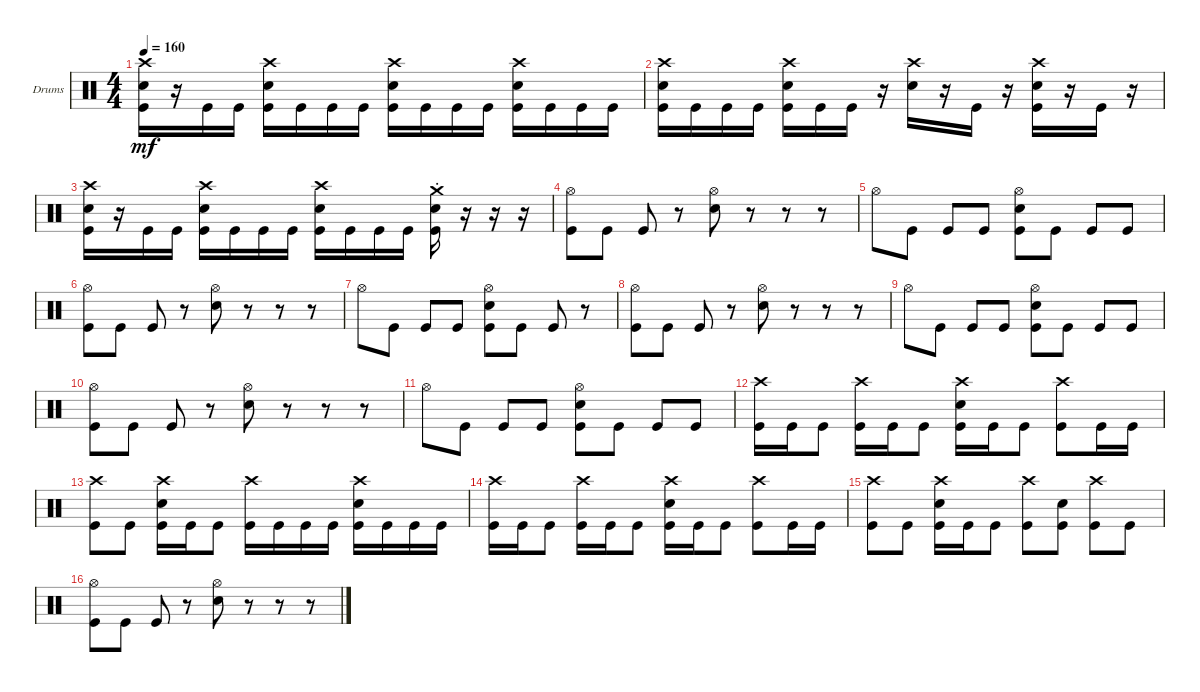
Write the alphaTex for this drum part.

\bracketExtendMode groupsimilarinstruments
\firstSystemTrackNameOrientation horizontal
\otherSystemsTrackNameOrientation horizontal
\track ("Drums" "Drums") {instrument percussion}
\staff {score}
\articulation defaults
\ts (4 4)
\tempo 160
\clef neutral
\scale
0.333333
\ks c
("Kick (hit)" "Snare (hit) 2" "Crash high (hit)").16{dy mf} r.16 "Kick (hit)".16 "Kick (hit)".16 ("Kick (hit)" "Snare (hit) 2" "Crash high (hit)").16 "Kick (hit)".16 "Kick (hit)".16 "Kick (hit)".16 ("Kick (hit)" "Snare (hit) 2" "Crash high (hit)").16 "Kick (hit)".16 "Kick (hit)".16 "Kick (hit)".16 ("Kick (hit)" "Snare (hit) 2" "Crash high (hit)").16 "Kick (hit)".16 "Kick (hit)".16 "Kick (hit)".16 |
\scale
0.333333 ("Kick (hit)" "Snare (hit) 2" "Crash high (hit)").16 "Kick (hit)".16 "Kick (hit)".16 "Kick (hit)".16 ("Kick (hit)" "Snare (hit) 2" "Crash high (hit)").16 "Kick (hit)".16 "Kick (hit)".16 r.16 ("Snare (hit) 2" "Crash high (hit)").16 r.16 "Kick (hit)".16 r.16 ("Kick (hit)" "Snare (hit) 2" "Crash high (hit)").16 r.16 "Kick (hit)".16 r.16 |
\scale
0.333333 ("Kick (hit)" "Snare (hit) 2" "Crash high (hit)").16 r.16 "Kick (hit)".16 "Kick (hit)".16 ("Kick (hit)" "Snare (hit) 2" "Crash high (hit)").16 "Kick (hit)".16 "Kick (hit)".16 "Kick (hit)".16 ("Kick (hit)" "Snare (hit) 2" "Crash high (hit)").16 "Kick (hit)".16 "Kick (hit)".16 "Kick (hit)".16 ("Kick (hit)" "Snare (hit) 2" "Crash medium (hit)"{st}).16 r.16 r.16 r.16 |
\scale
0.333333 ("Kick (hit)" "Hi-Hat (open)").8 "Kick (hit)".8 "Kick (hit)".8 r.8 ("Snare (hit) 2" "Hi-Hat (open)").8 r.8 r.8 r.8 |
\scale
0.333333 "Hi-Hat (open)".8 "Kick (hit)".8 "Kick (hit)".8 "Kick (hit)".8 ("Kick (hit)" "Snare (hit) 2" "Hi-Hat (open)").8 "Kick (hit)".8 "Kick (hit)".8 "Kick (hit)".8 |
\scale
0.333333 ("Kick (hit)" "Hi-Hat (open)").8 "Kick (hit)".8 "Kick (hit)".8 r.8 ("Hi-Hat (open)" "Snare (hit) 2").8 r.8 r.8 r.8 |
\scale
0.333333 "Hi-Hat (open)".8 "Kick (hit)".8 "Kick (hit)".8 "Kick (hit)".8 ("Kick (hit)" "Snare (hit) 2" "Hi-Hat (open)").8 "Kick (hit)".8 "Kick (hit)".8 r.8 |
\scale
0.333333 ("Kick (hit)" "Hi-Hat (open)").8 "Kick (hit)".8 "Kick (hit)".8 r.8 ("Snare (hit) 2" "Hi-Hat (open)").8 r.8 r.8 r.8 |
\scale
0.333333 "Hi-Hat (open)".8 "Kick (hit)".8 "Kick (hit)".8 "Kick (hit)".8 ("Kick (hit)" "Snare (hit) 2" "Hi-Hat (open)").8 "Kick (hit)".8 "Kick (hit)".8 "Kick (hit)".8 |
\scale
0.333333 ("Kick (hit)" "Hi-Hat (open)").8 "Kick (hit)".8 "Kick (hit)".8 r.8 ("Hi-Hat (open)" "Snare (hit) 2").8 r.8 r.8 r.8 |
\scale
0.333333 "Hi-Hat (open)".8 "Kick (hit)".8 "Kick (hit)".8 "Kick (hit)".8 ("Kick (hit)" "Snare (hit) 2" "Hi-Hat (open)").8 "Kick (hit)".8 "Kick (hit)".8 "Kick (hit)".8 |
\scale
0.333333 ("Kick (hit)" "Crash high (hit)").16 "Kick (hit)".16 "Kick (hit)".8 ("Kick (hit)" "Crash high (hit)").16 "Kick (hit)".16 "Kick (hit)".8 ("Kick (hit)" "Crash high (hit)" "Snare (hit) 2").16 "Kick (hit)".16 "Kick (hit)".8 ("Kick (hit)" "Crash high (hit)").8 "Kick (hit)".16 "Kick (hit)".16 |
\scale
0.333333 ("Kick (hit)" "Crash high (hit)").8 "Kick (hit)".8 ("Kick (hit)" "Crash high (hit)" "Snare (hit) 2").16 "Kick (hit)".16 "Kick (hit)".8 ("Kick (hit)" "Crash high (hit)").16 "Kick (hit)".16 "Kick (hit)".16 "Kick (hit)".16 ("Kick (hit)" "Crash high (hit)" "Snare (hit) 2").16 "Kick (hit)".16 "Kick (hit)".16 "Kick (hit)".16 |
\scale
0.333333 ("Kick (hit)" "Crash high (hit)").16 "Kick (hit)".16 "Kick (hit)".8 ("Kick (hit)" "Crash high (hit)").16 "Kick (hit)".16 "Kick (hit)".8 ("Kick (hit)" "Crash high (hit)" "Snare (hit) 2").16 "Kick (hit)".16 "Kick (hit)".8 ("Kick (hit)" "Crash high (hit)").8 "Kick (hit)".16 "Kick (hit)".16 |
\scale
0.333333 ("Kick (hit)" "Crash high (hit)").8 "Kick (hit)".8 ("Kick (hit)" "Crash high (hit)" "Snare (hit) 2").16 "Kick (hit)".16 "Kick (hit)".8 ("Kick (hit)" "Crash high (hit)").8 ("Kick (hit)" "Snare (hit) 2").8 ("Kick (hit)" "Crash high (hit)").8 "Kick (hit)".8 |
\scale
0.333333 ("Kick (hit)" "Hi-Hat (open)").8 "Kick (hit)".8 "Kick (hit)".8 r.8 ("Snare (hit) 2" "Hi-Hat (open)").8 r.8 r.8 r.8
